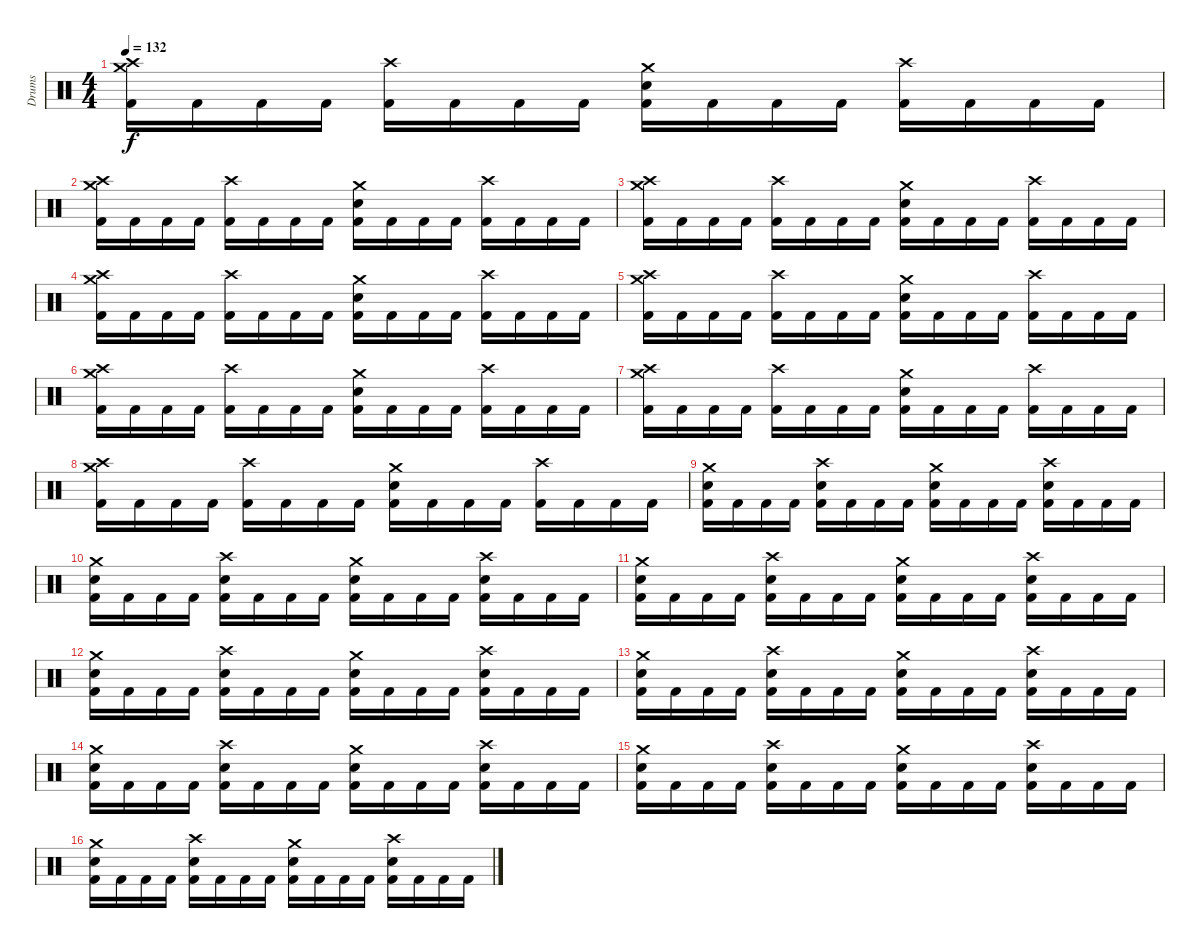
\track ("Drums" "Drums") {instrument percussion}
\staff {score}
\articulation defaults
\ts (4 4)
\tempo 132
\clef neutral
\ks c
("Crash medium (hit)" "Crash high (hit)" "Kick (hit) 2").16{dy f} "Kick (hit) 2".16 "Kick (hit) 2".16 "Kick (hit) 2".16 ("Crash high (hit)" "Kick (hit) 2").16 "Kick (hit) 2".16 "Kick (hit) 2".16 "Kick (hit) 2".16 ("Crash medium (hit)" "Electric Snare (hit)" "Kick (hit) 2").16 "Kick (hit) 2".16 "Kick (hit) 2".16 "Kick (hit) 2".16 ("Crash high (hit)" "Kick (hit) 2").16 "Kick (hit) 2".16 "Kick (hit) 2".16 "Kick (hit) 2".16 |
("Crash medium (hit)" "Crash high (hit)" "Kick (hit) 2").16 "Kick (hit) 2".16 "Kick (hit) 2".16 "Kick (hit) 2".16 ("Crash high (hit)" "Kick (hit) 2").16 "Kick (hit) 2".16 "Kick (hit) 2".16 "Kick (hit) 2".16 ("Crash medium (hit)" "Electric Snare (hit)" "Kick (hit) 2").16 "Kick (hit) 2".16 "Kick (hit) 2".16 "Kick (hit) 2".16 ("Crash high (hit)" "Kick (hit) 2").16 "Kick (hit) 2".16 "Kick (hit) 2".16 "Kick (hit) 2".16 |
("Crash medium (hit)" "Crash high (hit)" "Kick (hit) 2").16 "Kick (hit) 2".16 "Kick (hit) 2".16 "Kick (hit) 2".16 ("Crash high (hit)" "Kick (hit) 2").16 "Kick (hit) 2".16 "Kick (hit) 2".16 "Kick (hit) 2".16 ("Crash medium (hit)" "Electric Snare (hit)" "Kick (hit) 2").16 "Kick (hit) 2".16 "Kick (hit) 2".16 "Kick (hit) 2".16 ("Crash high (hit)" "Kick (hit) 2").16 "Kick (hit) 2".16 "Kick (hit) 2".16 "Kick (hit) 2".16 |
("Crash medium (hit)" "Crash high (hit)" "Kick (hit) 2").16 "Kick (hit) 2".16 "Kick (hit) 2".16 "Kick (hit) 2".16 ("Crash high (hit)" "Kick (hit) 2").16 "Kick (hit) 2".16 "Kick (hit) 2".16 "Kick (hit) 2".16 ("Crash medium (hit)" "Electric Snare (hit)" "Kick (hit) 2").16 "Kick (hit) 2".16 "Kick (hit) 2".16 "Kick (hit) 2".16 ("Crash high (hit)" "Kick (hit) 2").16 "Kick (hit) 2".16 "Kick (hit) 2".16 "Kick (hit) 2".16 |
("Crash medium (hit)" "Crash high (hit)" "Kick (hit) 2").16 "Kick (hit) 2".16 "Kick (hit) 2".16 "Kick (hit) 2".16 ("Crash high (hit)" "Kick (hit) 2").16 "Kick (hit) 2".16 "Kick (hit) 2".16 "Kick (hit) 2".16 ("Crash medium (hit)" "Electric Snare (hit)" "Kick (hit) 2").16 "Kick (hit) 2".16 "Kick (hit) 2".16 "Kick (hit) 2".16 ("Crash high (hit)" "Kick (hit) 2").16 "Kick (hit) 2".16 "Kick (hit) 2".16 "Kick (hit) 2".16 |
("Crash medium (hit)" "Crash high (hit)" "Kick (hit) 2").16 "Kick (hit) 2".16 "Kick (hit) 2".16 "Kick (hit) 2".16 ("Crash high (hit)" "Kick (hit) 2").16 "Kick (hit) 2".16 "Kick (hit) 2".16 "Kick (hit) 2".16 ("Crash medium (hit)" "Electric Snare (hit)" "Kick (hit) 2").16 "Kick (hit) 2".16 "Kick (hit) 2".16 "Kick (hit) 2".16 ("Crash high (hit)" "Kick (hit) 2").16 "Kick (hit) 2".16 "Kick (hit) 2".16 "Kick (hit) 2".16 |
("Crash medium (hit)" "Crash high (hit)" "Kick (hit) 2").16 "Kick (hit) 2".16 "Kick (hit) 2".16 "Kick (hit) 2".16 ("Crash high (hit)" "Kick (hit) 2").16 "Kick (hit) 2".16 "Kick (hit) 2".16 "Kick (hit) 2".16 ("Crash medium (hit)" "Electric Snare (hit)" "Kick (hit) 2").16 "Kick (hit) 2".16 "Kick (hit) 2".16 "Kick (hit) 2".16 ("Crash high (hit)" "Kick (hit) 2").16 "Kick (hit) 2".16 "Kick (hit) 2".16 "Kick (hit) 2".16 |
("Crash medium (hit)" "Crash high (hit)" "Kick (hit) 2").16 "Kick (hit) 2".16 "Kick (hit) 2".16 "Kick (hit) 2".16 ("Crash high (hit)" "Kick (hit) 2").16 "Kick (hit) 2".16 "Kick (hit) 2".16 "Kick (hit) 2".16 ("Crash medium (hit)" "Electric Snare (hit)" "Kick (hit) 2").16 "Kick (hit) 2".16 "Kick (hit) 2".16 "Kick (hit) 2".16 ("Crash high (hit)" "Kick (hit) 2").16 "Kick (hit) 2".16 "Kick (hit) 2".16 "Kick (hit) 2".16 |
("Crash medium (hit)" "Electric Snare (hit)" "Kick (hit) 2").16 "Kick (hit) 2".16 "Kick (hit) 2".16 "Kick (hit) 2".16 ("Crash high (hit)" "Electric Snare (hit)" "Kick (hit) 2").16 "Kick (hit) 2".16 "Kick (hit) 2".16 "Kick (hit) 2".16 ("Crash medium (hit)" "Electric Snare (hit)" "Kick (hit) 2").16 "Kick (hit) 2".16 "Kick (hit) 2".16 "Kick (hit) 2".16 ("Crash high (hit)" "Electric Snare (hit)" "Kick (hit) 2").16 "Kick (hit) 2".16 "Kick (hit) 2".16 "Kick (hit) 2".16 |
("Crash medium (hit)" "Electric Snare (hit)" "Kick (hit) 2").16 "Kick (hit) 2".16 "Kick (hit) 2".16 "Kick (hit) 2".16 ("Crash high (hit)" "Electric Snare (hit)" "Kick (hit) 2").16 "Kick (hit) 2".16 "Kick (hit) 2".16 "Kick (hit) 2".16 ("Crash medium (hit)" "Electric Snare (hit)" "Kick (hit) 2").16 "Kick (hit) 2".16 "Kick (hit) 2".16 "Kick (hit) 2".16 ("Crash high (hit)" "Electric Snare (hit)" "Kick (hit) 2").16 "Kick (hit) 2".16 "Kick (hit) 2".16 "Kick (hit) 2".16 |
("Crash medium (hit)" "Electric Snare (hit)" "Kick (hit) 2").16 "Kick (hit) 2".16 "Kick (hit) 2".16 "Kick (hit) 2".16 ("Crash high (hit)" "Electric Snare (hit)" "Kick (hit) 2").16 "Kick (hit) 2".16 "Kick (hit) 2".16 "Kick (hit) 2".16 ("Crash medium (hit)" "Electric Snare (hit)" "Kick (hit) 2").16 "Kick (hit) 2".16 "Kick (hit) 2".16 "Kick (hit) 2".16 ("Crash high (hit)" "Electric Snare (hit)" "Kick (hit) 2").16 "Kick (hit) 2".16 "Kick (hit) 2".16 "Kick (hit) 2".16 |
("Crash medium (hit)" "Electric Snare (hit)" "Kick (hit) 2").16 "Kick (hit) 2".16 "Kick (hit) 2".16 "Kick (hit) 2".16 ("Crash high (hit)" "Electric Snare (hit)" "Kick (hit) 2").16 "Kick (hit) 2".16 "Kick (hit) 2".16 "Kick (hit) 2".16 ("Crash medium (hit)" "Electric Snare (hit)" "Kick (hit) 2").16 "Kick (hit) 2".16 "Kick (hit) 2".16 "Kick (hit) 2".16 ("Crash high (hit)" "Electric Snare (hit)" "Kick (hit) 2").16 "Kick (hit) 2".16 "Kick (hit) 2".16 "Kick (hit) 2".16 |
("Crash medium (hit)" "Electric Snare (hit)" "Kick (hit) 2").16 "Kick (hit) 2".16 "Kick (hit) 2".16 "Kick (hit) 2".16 ("Crash high (hit)" "Electric Snare (hit)" "Kick (hit) 2").16 "Kick (hit) 2".16 "Kick (hit) 2".16 "Kick (hit) 2".16 ("Crash medium (hit)" "Electric Snare (hit)" "Kick (hit) 2").16 "Kick (hit) 2".16 "Kick (hit) 2".16 "Kick (hit) 2".16 ("Crash high (hit)" "Electric Snare (hit)" "Kick (hit) 2").16 "Kick (hit) 2".16 "Kick (hit) 2".16 "Kick (hit) 2".16 |
("Crash medium (hit)" "Electric Snare (hit)" "Kick (hit) 2").16 "Kick (hit) 2".16 "Kick (hit) 2".16 "Kick (hit) 2".16 ("Crash high (hit)" "Electric Snare (hit)" "Kick (hit) 2").16 "Kick (hit) 2".16 "Kick (hit) 2".16 "Kick (hit) 2".16 ("Crash medium (hit)" "Electric Snare (hit)" "Kick (hit) 2").16 "Kick (hit) 2".16 "Kick (hit) 2".16 "Kick (hit) 2".16 ("Crash high (hit)" "Electric Snare (hit)" "Kick (hit) 2").16 "Kick (hit) 2".16 "Kick (hit) 2".16 "Kick (hit) 2".16 |
("Crash medium (hit)" "Electric Snare (hit)" "Kick (hit) 2").16 "Kick (hit) 2".16 "Kick (hit) 2".16 "Kick (hit) 2".16 ("Crash high (hit)" "Electric Snare (hit)" "Kick (hit) 2").16 "Kick (hit) 2".16 "Kick (hit) 2".16 "Kick (hit) 2".16 ("Crash medium (hit)" "Electric Snare (hit)" "Kick (hit) 2").16 "Kick (hit) 2".16 "Kick (hit) 2".16 "Kick (hit) 2".16 ("Crash high (hit)" "Electric Snare (hit)" "Kick (hit) 2").16 "Kick (hit) 2".16 "Kick (hit) 2".16 "Kick (hit) 2".16 |
("Crash medium (hit)" "Electric Snare (hit)" "Kick (hit) 2").16 "Kick (hit) 2".16 "Kick (hit) 2".16 "Kick (hit) 2".16 ("Crash high (hit)" "Electric Snare (hit)" "Kick (hit) 2").16 "Kick (hit) 2".16 "Kick (hit) 2".16 "Kick (hit) 2".16 ("Crash medium (hit)" "Electric Snare (hit)" "Kick (hit) 2").16 "Kick (hit) 2".16 "Kick (hit) 2".16 "Kick (hit) 2".16 ("Crash high (hit)" "Electric Snare (hit)" "Kick (hit) 2").16 "Kick (hit) 2".16 "Kick (hit) 2".16 "Kick (hit) 2".16
